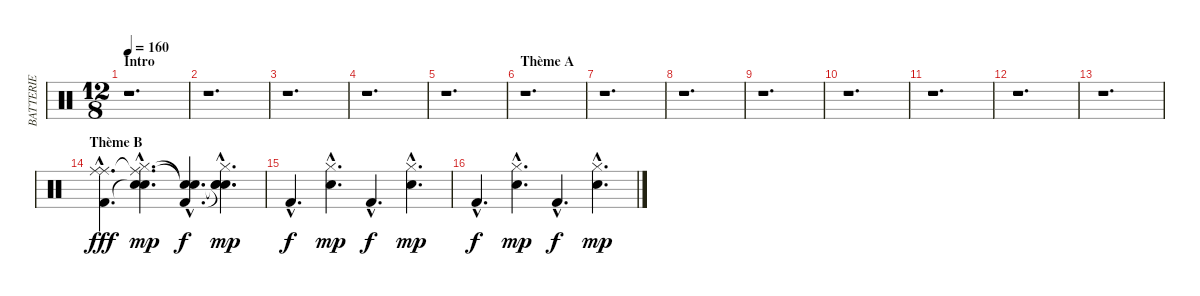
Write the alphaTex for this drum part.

\track ("BATTERIE" "BATTERIE") {instrument percussion}
\staff {score}
\articulation defaults
\ts (12 8)
\section ("" "Intro")
\tempo 160
\clef neutral
\ks c
r.1{d dy fff} |
r.1{d} |
r.1{d} |
r.1{d} |
r.1{d} |
\section ("" "Thème A")
r.1{d} |
r.1{d} |
r.1{d} |
r.1{d} |
r.1{d} |
r.1{d} |
r.1{d} |
r.1{d} |
\section ("" "Thème B")
("Ride (middle)"{hac} "Ride (middle)"{hac} "Kick (hit) 2"{hac}).4{d} ("Ride (middle)"{hac t} "Hi-Hat (closed)"{hac} "Snare (hit)"{hac t} "Snare (hit) 2"{hac}).4{d dy mp} ("Snare (hit)"{hac t} "Snare (hit)"{hac t} "Kick (hit) 2"{hac}).4{d dy f} ("Snare (hit)"{hac t} "Hi-Hat (closed)"{hac} "Snare (hit)"{hac t} "Snare (hit) 2"{hac}).4{d dy mp} |
"Kick (hit) 2"{hac}.4{d dy f} ("Hi-Hat (closed)"{hac} "Snare (hit) 2"{hac}).4{d dy mp} "Kick (hit) 2"{hac}.4{d dy f} ("Hi-Hat (closed)"{hac} "Snare (hit) 2"{hac}).4{d dy mp} |
"Kick (hit) 2"{hac}.4{d dy f} ("Hi-Hat (closed)"{hac} "Snare (hit) 2"{hac}).4{d dy mp} "Kick (hit) 2"{hac}.4{d dy f} ("Hi-Hat (closed)"{hac} "Snare (hit) 2"{hac}).4{d dy mp}
